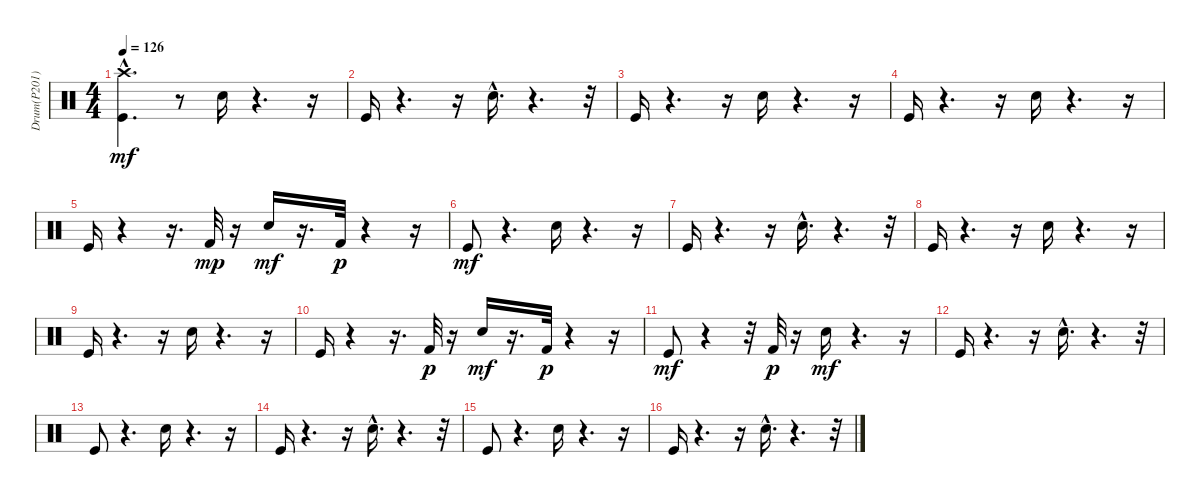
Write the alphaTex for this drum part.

\track ("Drum(P201)" "Drum(P201)") {instrument percussion}
\staff {score}
\articulation defaults
\ts (4 4)
\tempo 126
\clef neutral
\ks c
("Crash high (hit)"{hac} "Kick (hit)").4{d dy mf} r.8 "Electric Snare (hit)".16 r.4{d} r.16 |
"Kick (hit)".16 r.4{d} r.16 "Electric Snare (hit)"{hac}.16{d} r.4{d} r.32 |
"Kick (hit)".16 r.4{d} r.16 "Electric Snare (hit)".16 r.4{d} r.16 |
"Kick (hit)".16 r.4{d} r.16 "Electric Snare (hit)".16 r.4{d} r.16 |
"Kick (hit)".16 r.4 r.16{d} "Kick (hit) 2".32{dy mp} r.16 "Electric Snare (hit)".16{dy mf} r.16{d} "Kick (hit) 2".32{dy p} r.4 r.16 |
"Kick (hit)".8{dy mf} r.4{d} "Electric Snare (hit)".16 r.4{d} r.16 |
"Kick (hit)".16 r.4{d} r.16 "Electric Snare (hit)"{hac}.16{d} r.4{d} r.32 |
"Kick (hit)".16 r.4{d} r.16 "Electric Snare (hit)".16 r.4{d} r.16 |
"Kick (hit)".16 r.4{d} r.16 "Electric Snare (hit)".16 r.4{d} r.16 |
"Kick (hit)".16 r.4 r.16{d} "Kick (hit) 2".32{dy p} r.16 "Electric Snare (hit)".16{dy mf} r.16{d} "Kick (hit) 2".32{dy p} r.4 r.16 |
"Kick (hit)".8{dy mf} r.4 r.32 "Kick (hit) 2".32{dy p} r.16 "Electric Snare (hit)".16{dy mf} r.4{d} r.16 |
"Kick (hit)".16 r.4{d} r.16 "Electric Snare (hit)"{hac}.16{d} r.4{d} r.32 |
"Kick (hit)".8 r.4{d} "Electric Snare (hit)".16 r.4{d} r.16 |
"Kick (hit)".16 r.4{d} r.16 "Electric Snare (hit)"{hac}.16{d} r.4{d} r.32 |
"Kick (hit)".8 r.4{d} "Electric Snare (hit)".16 r.4{d} r.16 |
"Kick (hit)".16 r.4{d} r.16 "Electric Snare (hit)"{hac}.16{d} r.4{d} r.32
